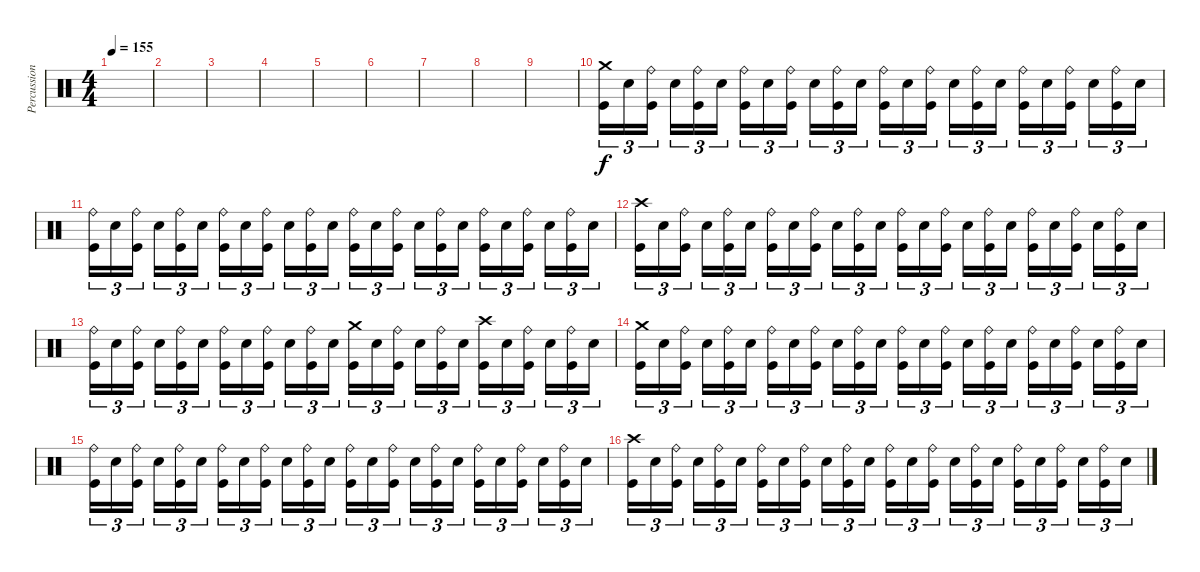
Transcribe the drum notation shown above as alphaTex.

\track ("Percussion" "Percussion") {instrument percussion}
\staff {score}
\articulation defaults
\ts (4 4)
\tempo 155
\clef neutral
\ks c
|
|
|
|
|
|
|
|
|
("Crash medium (hit)" "Kick (hit)").16{tu (3 2)} "Snare (hit) 2".16{tu (3 2)} ("Ride (bell)" "Kick (hit)").16{tu (3 2) beam splitsecondary} "Snare (hit) 2".16{tu (3 2)} ("Ride (bell)" "Kick (hit)").16{tu (3 2)} "Snare (hit) 2".16{tu (3 2)} ("Ride (bell)" "Kick (hit)").16{tu (3 2)} "Snare (hit) 2".16{tu (3 2)} ("Ride (bell)" "Kick (hit)").16{tu (3 2) beam splitsecondary} "Snare (hit) 2".16{tu (3 2)} ("Ride (bell)" "Kick (hit)").16{tu (3 2)} "Snare (hit) 2".16{tu (3 2)} ("Ride (bell)" "Kick (hit)").16{tu (3 2)} "Snare (hit) 2".16{tu (3 2)} ("Ride (bell)" "Kick (hit)").16{tu (3 2) beam splitsecondary} "Snare (hit) 2".16{tu (3 2)} ("Ride (bell)" "Kick (hit)").16{tu (3 2)} "Snare (hit) 2".16{tu (3 2)} ("Ride (bell)" "Kick (hit)").16{tu (3 2)} "Snare (hit) 2".16{tu (3 2)} ("Ride (bell)" "Kick (hit)").16{tu (3 2) beam splitsecondary} "Snare (hit) 2".16{tu (3 2)} ("Ride (bell)" "Kick (hit)").16{tu (3 2)} "Snare (hit) 2".16{tu (3 2)} |
("Ride (bell)" "Kick (hit)").16{tu (3 2)} "Snare (hit) 2".16{tu (3 2)} ("Ride (bell)" "Kick (hit)").16{tu (3 2) beam splitsecondary} "Snare (hit) 2".16{tu (3 2)} ("Ride (bell)" "Kick (hit)").16{tu (3 2)} "Snare (hit) 2".16{tu (3 2)} ("Ride (bell)" "Kick (hit)").16{tu (3 2)} "Snare (hit) 2".16{tu (3 2)} ("Ride (bell)" "Kick (hit)").16{tu (3 2) beam splitsecondary} "Snare (hit) 2".16{tu (3 2)} ("Ride (bell)" "Kick (hit)").16{tu (3 2)} "Snare (hit) 2".16{tu (3 2)} ("Ride (bell)" "Kick (hit)").16{tu (3 2)} "Snare (hit) 2".16{tu (3 2)} ("Ride (bell)" "Kick (hit)").16{tu (3 2) beam splitsecondary} "Snare (hit) 2".16{tu (3 2)} ("Ride (bell)" "Kick (hit)").16{tu (3 2)} "Snare (hit) 2".16{tu (3 2)} ("Ride (bell)" "Kick (hit)").16{tu (3 2)} "Snare (hit) 2".16{tu (3 2)} ("Ride (bell)" "Kick (hit)").16{tu (3 2) beam splitsecondary} "Snare (hit) 2".16{tu (3 2)} ("Ride (bell)" "Kick (hit)").16{tu (3 2)} "Snare (hit) 2".16{tu (3 2)} |
("Crash high (hit)" "Kick (hit)").16{tu (3 2)} "Snare (hit) 2".16{tu (3 2)} ("Ride (bell)" "Kick (hit)").16{tu (3 2) beam splitsecondary} "Snare (hit) 2".16{tu (3 2)} ("Ride (bell)" "Kick (hit)").16{tu (3 2)} "Snare (hit) 2".16{tu (3 2)} ("Ride (bell)" "Kick (hit)").16{tu (3 2)} "Snare (hit) 2".16{tu (3 2)} ("Ride (bell)" "Kick (hit)").16{tu (3 2) beam splitsecondary} "Snare (hit) 2".16{tu (3 2)} ("Ride (bell)" "Kick (hit)").16{tu (3 2)} "Snare (hit) 2".16{tu (3 2)} ("Ride (bell)" "Kick (hit)").16{tu (3 2)} "Snare (hit) 2".16{tu (3 2)} ("Ride (bell)" "Kick (hit)").16{tu (3 2) beam splitsecondary} "Snare (hit) 2".16{tu (3 2)} ("Ride (bell)" "Kick (hit)").16{tu (3 2)} "Snare (hit) 2".16{tu (3 2)} ("Ride (bell)" "Kick (hit)").16{tu (3 2)} "Snare (hit) 2".16{tu (3 2)} ("Ride (bell)" "Kick (hit)").16{tu (3 2) beam splitsecondary} "Snare (hit) 2".16{tu (3 2)} ("Ride (bell)" "Kick (hit)").16{tu (3 2)} "Snare (hit) 2".16{tu (3 2)} |
("Ride (bell)" "Kick (hit)").16{tu (3 2)} "Snare (hit) 2".16{tu (3 2)} ("Ride (bell)" "Kick (hit)").16{tu (3 2) beam splitsecondary} "Snare (hit) 2".16{tu (3 2)} ("Ride (bell)" "Kick (hit)").16{tu (3 2)} "Snare (hit) 2".16{tu (3 2)} ("Ride (bell)" "Kick (hit)").16{tu (3 2)} "Snare (hit) 2".16{tu (3 2)} ("Ride (bell)" "Kick (hit)").16{tu (3 2) beam splitsecondary} "Snare (hit) 2".16{tu (3 2)} ("Ride (bell)" "Kick (hit)").16{tu (3 2)} "Snare (hit) 2".16{tu (3 2)} ("Crash medium (hit)" "Kick (hit)").16{tu (3 2)} "Snare (hit) 2".16{tu (3 2)} ("Ride (bell)" "Kick (hit)").16{tu (3 2) beam splitsecondary} "Snare (hit) 2".16{tu (3 2)} ("Ride (bell)" "Kick (hit)").16{tu (3 2)} "Snare (hit) 2".16{tu (3 2)} ("Crash high (hit)" "Kick (hit)").16{tu (3 2)} "Snare (hit) 2".16{tu (3 2)} ("Ride (bell)" "Kick (hit)").16{tu (3 2) beam splitsecondary} "Snare (hit) 2".16{tu (3 2)} ("Ride (bell)" "Kick (hit)").16{tu (3 2)} "Snare (hit) 2".16{tu (3 2)} |
("Crash medium (hit)" "Kick (hit)").16{tu (3 2)} "Snare (hit) 2".16{tu (3 2)} ("Ride (bell)" "Kick (hit)").16{tu (3 2) beam splitsecondary} "Snare (hit) 2".16{tu (3 2)} ("Ride (bell)" "Kick (hit)").16{tu (3 2)} "Snare (hit) 2".16{tu (3 2)} ("Ride (bell)" "Kick (hit)").16{tu (3 2)} "Snare (hit) 2".16{tu (3 2)} ("Ride (bell)" "Kick (hit)").16{tu (3 2) beam splitsecondary} "Snare (hit) 2".16{tu (3 2)} ("Ride (bell)" "Kick (hit)").16{tu (3 2)} "Snare (hit) 2".16{tu (3 2)} ("Ride (bell)" "Kick (hit)").16{tu (3 2)} "Snare (hit) 2".16{tu (3 2)} ("Ride (bell)" "Kick (hit)").16{tu (3 2) beam splitsecondary} "Snare (hit) 2".16{tu (3 2)} ("Ride (bell)" "Kick (hit)").16{tu (3 2)} "Snare (hit) 2".16{tu (3 2)} ("Ride (bell)" "Kick (hit)").16{tu (3 2)} "Snare (hit) 2".16{tu (3 2)} ("Ride (bell)" "Kick (hit)").16{tu (3 2) beam splitsecondary} "Snare (hit) 2".16{tu (3 2)} ("Ride (bell)" "Kick (hit)").16{tu (3 2)} "Snare (hit) 2".16{tu (3 2)} |
("Ride (bell)" "Kick (hit)").16{tu (3 2)} "Snare (hit) 2".16{tu (3 2)} ("Ride (bell)" "Kick (hit)").16{tu (3 2) beam splitsecondary} "Snare (hit) 2".16{tu (3 2)} ("Ride (bell)" "Kick (hit)").16{tu (3 2)} "Snare (hit) 2".16{tu (3 2)} ("Ride (bell)" "Kick (hit)").16{tu (3 2)} "Snare (hit) 2".16{tu (3 2)} ("Ride (bell)" "Kick (hit)").16{tu (3 2) beam splitsecondary} "Snare (hit) 2".16{tu (3 2)} ("Ride (bell)" "Kick (hit)").16{tu (3 2)} "Snare (hit) 2".16{tu (3 2)} ("Ride (bell)" "Kick (hit)").16{tu (3 2)} "Snare (hit) 2".16{tu (3 2)} ("Ride (bell)" "Kick (hit)").16{tu (3 2) beam splitsecondary} "Snare (hit) 2".16{tu (3 2)} ("Ride (bell)" "Kick (hit)").16{tu (3 2)} "Snare (hit) 2".16{tu (3 2)} ("Ride (bell)" "Kick (hit)").16{tu (3 2)} "Snare (hit) 2".16{tu (3 2)} ("Ride (bell)" "Kick (hit)").16{tu (3 2) beam splitsecondary} "Snare (hit) 2".16{tu (3 2)} ("Ride (bell)" "Kick (hit)").16{tu (3 2)} "Snare (hit) 2".16{tu (3 2)} |
("Crash high (hit)" "Kick (hit)").16{tu (3 2)} "Snare (hit) 2".16{tu (3 2)} ("Ride (bell)" "Kick (hit)").16{tu (3 2) beam splitsecondary} "Snare (hit) 2".16{tu (3 2)} ("Ride (bell)" "Kick (hit)").16{tu (3 2)} "Snare (hit) 2".16{tu (3 2)} ("Ride (bell)" "Kick (hit)").16{tu (3 2)} "Snare (hit) 2".16{tu (3 2)} ("Ride (bell)" "Kick (hit)").16{tu (3 2) beam splitsecondary} "Snare (hit) 2".16{tu (3 2)} ("Ride (bell)" "Kick (hit)").16{tu (3 2)} "Snare (hit) 2".16{tu (3 2)} ("Ride (bell)" "Kick (hit)").16{tu (3 2)} "Snare (hit) 2".16{tu (3 2)} ("Ride (bell)" "Kick (hit)").16{tu (3 2) beam splitsecondary} "Snare (hit) 2".16{tu (3 2)} ("Ride (bell)" "Kick (hit)").16{tu (3 2)} "Snare (hit) 2".16{tu (3 2)} ("Ride (bell)" "Kick (hit)").16{tu (3 2)} "Snare (hit) 2".16{tu (3 2)} ("Ride (bell)" "Kick (hit)").16{tu (3 2) beam splitsecondary} "Snare (hit) 2".16{tu (3 2)} ("Ride (bell)" "Kick (hit)").16{tu (3 2)} "Snare (hit) 2".16{tu (3 2)}
